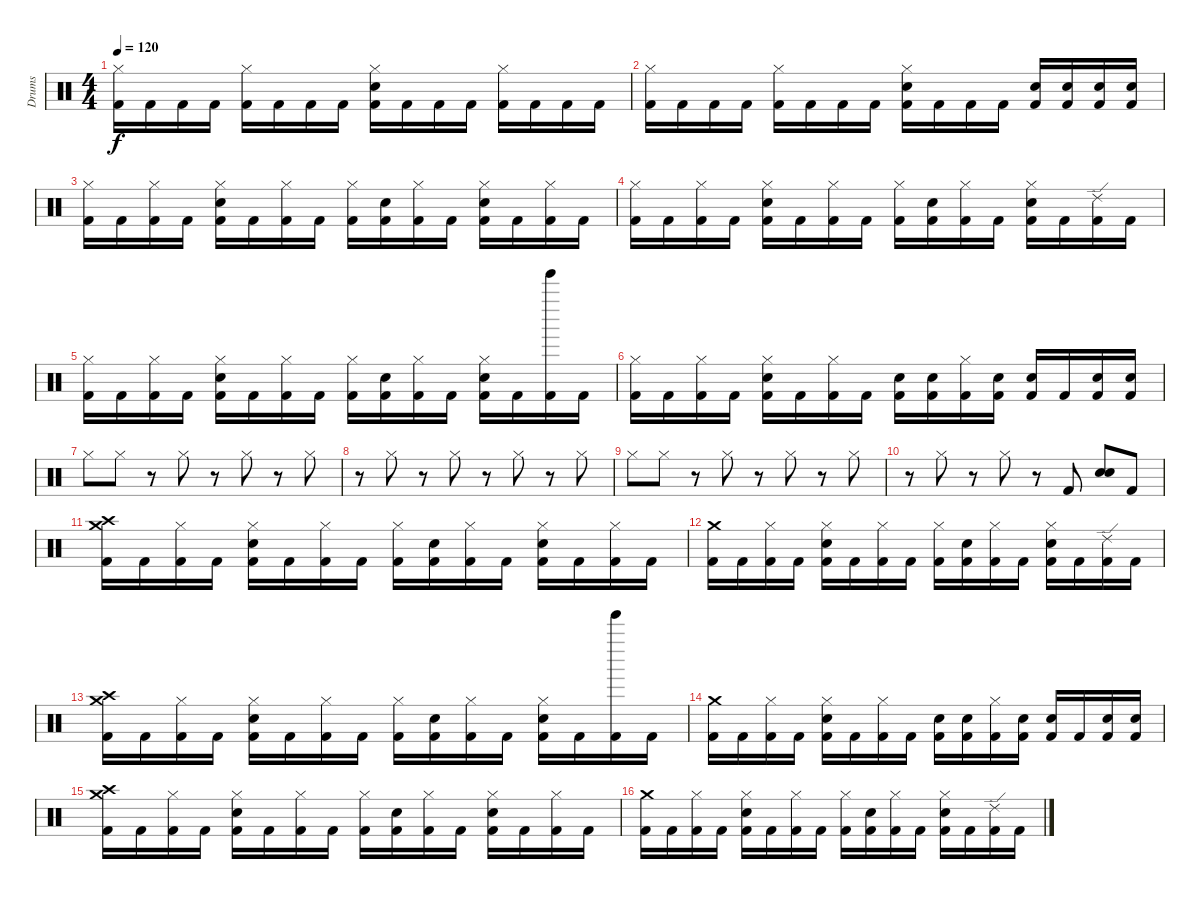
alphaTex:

\track ("Drums" "Drums") {instrument percussion}
\staff {score}
\articulation defaults
\ts (4 4)
\tempo 120
\clef neutral
\ks c
("Hi-Hat (closed)" "Kick (hit) 2").16{dy f} "Kick (hit) 2".16 "Kick (hit) 2".16 "Kick (hit) 2".16 ("Hi-Hat (closed)" "Kick (hit) 2").16 "Kick (hit) 2".16 "Kick (hit) 2".16 "Kick (hit) 2".16 ("Hi-Hat (closed)" "Kick (hit) 2" "Snare (hit) 2").16 "Kick (hit) 2".16 "Kick (hit) 2".16 "Kick (hit) 2".16 ("Hi-Hat (closed)" "Kick (hit) 2").16 "Kick (hit) 2".16 "Kick (hit) 2".16 "Kick (hit) 2".16 |
("Hi-Hat (closed)" "Kick (hit) 2").16 "Kick (hit) 2".16 "Kick (hit) 2".16 "Kick (hit) 2".16 ("Hi-Hat (closed)" "Kick (hit) 2").16 "Kick (hit) 2".16 "Kick (hit) 2".16 "Kick (hit) 2".16 ("Hi-Hat (closed)" "Kick (hit) 2" "Snare (hit) 2").16 "Kick (hit) 2".16 "Kick (hit) 2".16 "Kick (hit) 2".16 ("Kick (hit) 2" "Snare (hit) 2").16 ("Kick (hit) 2" "Snare (hit) 2").16 ("Kick (hit) 2" "Snare (hit) 2").16 ("Kick (hit) 2" "Snare (hit) 2").16 |
("Hi-Hat (closed)" "Kick (hit) 2").16 "Kick (hit) 2".16 ("Hi-Hat (closed)" "Kick (hit) 2").16 "Kick (hit) 2".16 ("Hi-Hat (closed)" "Kick (hit) 2" "Snare (hit) 2").16 "Kick (hit) 2".16 ("Hi-Hat (closed)" "Kick (hit) 2").16 "Kick (hit) 2".16 ("Hi-Hat (closed)" "Kick (hit) 2").16 ("Kick (hit) 2" "Snare (hit) 2").16 ("Hi-Hat (closed)" "Kick (hit) 2").16 "Kick (hit) 2".16 ("Hi-Hat (closed)" "Kick (hit) 2" "Snare (hit) 2").16 "Kick (hit) 2".16 ("Hi-Hat (closed)" "Kick (hit) 2").16 "Kick (hit) 2".16 |
("Hi-Hat (closed)" "Kick (hit) 2").16 "Kick (hit) 2".16 ("Hi-Hat (closed)" "Kick (hit) 2").16 "Kick (hit) 2".16 ("Hi-Hat (closed)" "Kick (hit) 2" "Snare (hit) 2").16 "Kick (hit) 2".16 ("Hi-Hat (closed)" "Kick (hit) 2").16 "Kick (hit) 2".16 ("Hi-Hat (closed)" "Kick (hit) 2").16 ("Kick (hit) 2" "Snare (hit) 2").16 ("Hi-Hat (closed)" "Kick (hit) 2").16 "Kick (hit) 2".16 ("Hi-Hat (closed)" "Kick (hit) 2" "Snare (hit) 2").16 "Kick (hit) 2".16 ("Ride (edge) 2" "Kick (hit) 2").16 "Kick (hit) 2".16 |
("Hi-Hat (closed)" "Kick (hit) 2").16 "Kick (hit) 2".16 ("Hi-Hat (closed)" "Kick (hit) 2").16 "Kick (hit) 2".16 ("Hi-Hat (closed)" "Kick (hit) 2" "Snare (hit) 2").16 "Kick (hit) 2".16 ("Hi-Hat (closed)" "Kick (hit) 2").16 "Kick (hit) 2".16 ("Hi-Hat (closed)" "Kick (hit) 2").16 ("Kick (hit) 2" "Snare (hit) 2").16 ("Hi-Hat (closed)" "Kick (hit) 2").16 "Kick (hit) 2".16 ("Hi-Hat (closed)" "Kick (hit) 2" "Snare (hit) 2").16 "Kick (hit) 2".16 ("Tinkle Bell (hit)" "Kick (hit) 2").16 "Kick (hit) 2".16 |
("Hi-Hat (closed)" "Kick (hit) 2").16 "Kick (hit) 2".16 ("Hi-Hat (closed)" "Kick (hit) 2").16 "Kick (hit) 2".16 ("Hi-Hat (closed)" "Kick (hit) 2" "Snare (hit) 2").16 "Kick (hit) 2".16 ("Hi-Hat (closed)" "Kick (hit) 2").16 "Kick (hit) 2".16 ("Kick (hit) 2" "Snare (hit) 2").16 ("Kick (hit) 2" "Snare (hit) 2").16 ("Hi-Hat (closed)" "Kick (hit) 2").16 ("Kick (hit) 2" "Snare (hit) 2").16 ("Kick (hit) 2" "Snare (hit) 2").16 "Kick (hit) 2".16 ("Kick (hit) 2" "Snare (hit) 2").16 ("Kick (hit) 2" "Snare (hit) 2").16 |
"Hi-Hat (closed)".8 "Hi-Hat (closed)".8 r.8 "Hi-Hat (closed)".8 r.8 "Hi-Hat (closed)".8 r.8 "Hi-Hat (closed)".8 |
r.8 "Hi-Hat (closed)".8 r.8 "Hi-Hat (closed)".8 r.8 "Hi-Hat (closed)".8 r.8 "Hi-Hat (closed)".8 |
"Hi-Hat (closed)".8 "Hi-Hat (closed)".8 r.8 "Hi-Hat (closed)".8 r.8 "Hi-Hat (closed)".8 r.8 "Hi-Hat (closed)".8 |
r.8 "Hi-Hat (closed)".8 r.8 "Hi-Hat (closed)".8 r.8 "Kick (hit) 2".8 ("Snare (hit) 2" "Snare (hit) 2").8 "Kick (hit) 2".8 |
("Crash medium (hit)" "Kick (hit) 2" "Crash high (hit)").16 "Kick (hit) 2".16 ("Hi-Hat (closed)" "Kick (hit) 2").16 "Kick (hit) 2".16 ("Hi-Hat (closed)" "Kick (hit) 2" "Snare (hit) 2").16 "Kick (hit) 2".16 ("Hi-Hat (closed)" "Kick (hit) 2").16 "Kick (hit) 2".16 ("Hi-Hat (closed)" "Kick (hit) 2").16 ("Kick (hit) 2" "Snare (hit) 2").16 ("Hi-Hat (closed)" "Kick (hit) 2").16 "Kick (hit) 2".16 ("Hi-Hat (closed)" "Kick (hit) 2" "Snare (hit) 2").16 "Kick (hit) 2".16 ("Hi-Hat (closed)" "Kick (hit) 2").16 "Kick (hit) 2".16 |
("Crash medium (hit)" "Kick (hit) 2").16 "Kick (hit) 2".16 ("Hi-Hat (closed)" "Kick (hit) 2").16 "Kick (hit) 2".16 ("Hi-Hat (closed)" "Kick (hit) 2" "Snare (hit) 2").16 "Kick (hit) 2".16 ("Hi-Hat (closed)" "Kick (hit) 2").16 "Kick (hit) 2".16 ("Hi-Hat (closed)" "Kick (hit) 2").16 ("Kick (hit) 2" "Snare (hit) 2").16 ("Hi-Hat (closed)" "Kick (hit) 2").16 "Kick (hit) 2".16 ("Hi-Hat (closed)" "Kick (hit) 2" "Snare (hit) 2").16 "Kick (hit) 2".16 ("Ride (edge) 2" "Kick (hit) 2").16 "Kick (hit) 2".16 |
("Crash medium (hit)" "Kick (hit) 2" "Crash high (hit)").16 "Kick (hit) 2".16 ("Hi-Hat (closed)" "Kick (hit) 2").16 "Kick (hit) 2".16 ("Hi-Hat (closed)" "Kick (hit) 2" "Snare (hit) 2").16 "Kick (hit) 2".16 ("Hi-Hat (closed)" "Kick (hit) 2").16 "Kick (hit) 2".16 ("Hi-Hat (closed)" "Kick (hit) 2").16 ("Kick (hit) 2" "Snare (hit) 2").16 ("Hi-Hat (closed)" "Kick (hit) 2").16 "Kick (hit) 2".16 ("Hi-Hat (closed)" "Kick (hit) 2" "Snare (hit) 2").16 "Kick (hit) 2".16 ("Tinkle Bell (hit)" "Kick (hit) 2").16 "Kick (hit) 2".16 |
("Crash medium (hit)" "Kick (hit) 2").16 "Kick (hit) 2".16 ("Hi-Hat (closed)" "Kick (hit) 2").16 "Kick (hit) 2".16 ("Hi-Hat (closed)" "Kick (hit) 2" "Snare (hit) 2").16 "Kick (hit) 2".16 ("Hi-Hat (closed)" "Kick (hit) 2").16 "Kick (hit) 2".16 ("Kick (hit) 2" "Snare (hit) 2").16 ("Kick (hit) 2" "Snare (hit) 2").16 ("Hi-Hat (closed)" "Kick (hit) 2").16 ("Kick (hit) 2" "Snare (hit) 2").16 ("Kick (hit) 2" "Snare (hit) 2").16 "Kick (hit) 2".16 ("Kick (hit) 2" "Snare (hit) 2").16 ("Kick (hit) 2" "Snare (hit) 2").16 |
("Crash medium (hit)" "Kick (hit) 2" "Crash high (hit)").16 "Kick (hit) 2".16 ("Hi-Hat (closed)" "Kick (hit) 2").16 "Kick (hit) 2".16 ("Hi-Hat (closed)" "Kick (hit) 2" "Snare (hit) 2").16 "Kick (hit) 2".16 ("Hi-Hat (closed)" "Kick (hit) 2").16 "Kick (hit) 2".16 ("Hi-Hat (closed)" "Kick (hit) 2").16 ("Kick (hit) 2" "Snare (hit) 2").16 ("Hi-Hat (closed)" "Kick (hit) 2").16 "Kick (hit) 2".16 ("Hi-Hat (closed)" "Kick (hit) 2" "Snare (hit) 2").16 "Kick (hit) 2".16 ("Hi-Hat (closed)" "Kick (hit) 2").16 "Kick (hit) 2".16 |
("Crash medium (hit)" "Kick (hit) 2").16 "Kick (hit) 2".16 ("Hi-Hat (closed)" "Kick (hit) 2").16 "Kick (hit) 2".16 ("Hi-Hat (closed)" "Kick (hit) 2" "Snare (hit) 2").16 "Kick (hit) 2".16 ("Hi-Hat (closed)" "Kick (hit) 2").16 "Kick (hit) 2".16 ("Hi-Hat (closed)" "Kick (hit) 2").16 ("Kick (hit) 2" "Snare (hit) 2").16 ("Hi-Hat (closed)" "Kick (hit) 2").16 "Kick (hit) 2".16 ("Hi-Hat (closed)" "Kick (hit) 2" "Snare (hit) 2").16 "Kick (hit) 2".16 ("Ride (edge) 2" "Kick (hit) 2").16 "Kick (hit) 2".16
